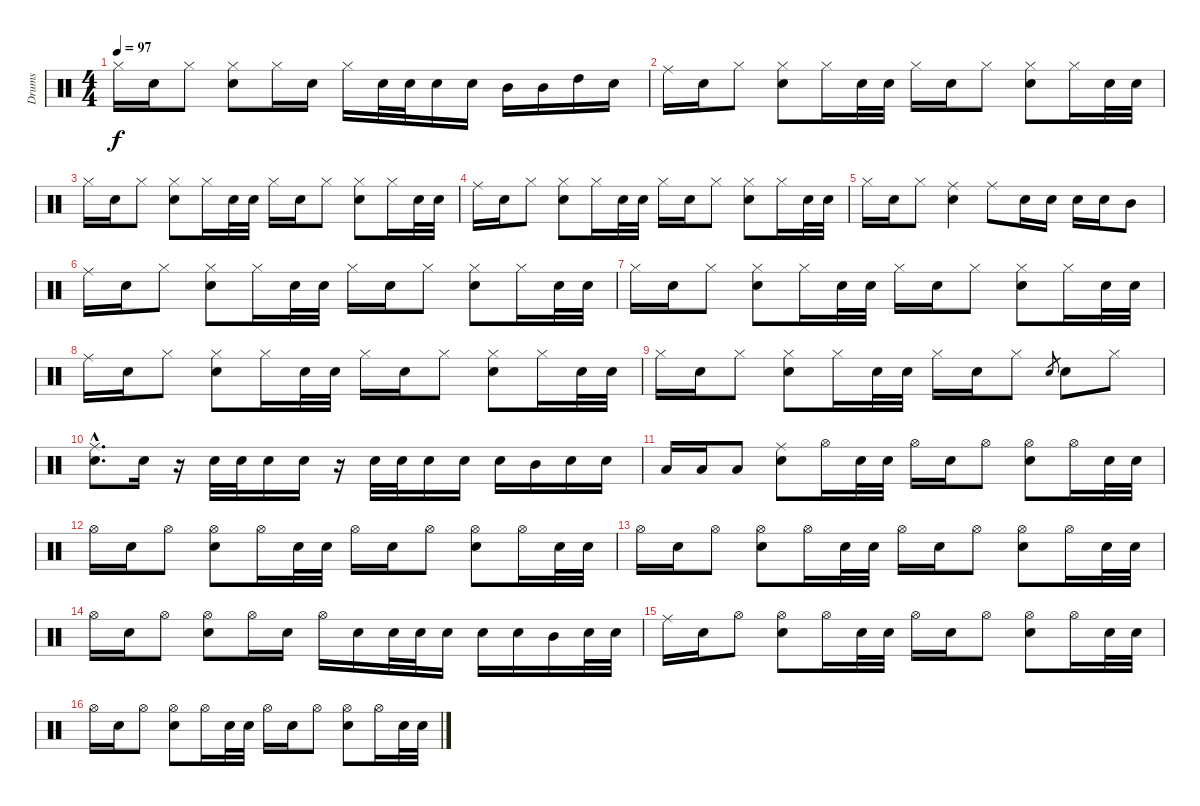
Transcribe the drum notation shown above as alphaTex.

\track ("Drums" "Drums") {instrument percussion}
\staff {score}
\articulation defaults
\ts (4 4)
\tempo 97
\clef neutral
\ks c "Hi-Hat (closed)".16{dy f} "Snare (hit) 2".16 "Hi-Hat (closed)".8
("Hi-Hat (closed)" "Snare (hit) 2").8 "Hi-Hat (closed)".16 "Snare (hit) 2".16 "Hi-Hat (closed)".16 "Snare (hit) 2".32 "Snare (hit) 2".32 "Snare (hit) 2".16 "Snare (hit) 2".16 "Mid Tom (hit)".16 "Mid Tom (hit)".16 "High Tom (hit)".16 "Snare (hit) 2".16 |
"Ride (middle)".16 "Snare (hit) 2".16 "Hi-Hat (closed)".8 ("Hi-Hat (closed)" "Snare (hit) 2").8 "Hi-Hat (closed)".16 "Snare (hit) 2".32 "Snare (hit) 2".32 "Hi-Hat (closed)".16 "Snare (hit) 2".16 "Hi-Hat (closed)".8 ("Hi-Hat (closed)" "Snare (hit) 2").8 "Hi-Hat (closed)".16 "Snare (hit) 2".32 "Snare (hit) 2".32 |
"Hi-Hat (closed)".16 "Snare (hit) 2".16 "Hi-Hat (closed)".8 ("Hi-Hat (closed)" "Snare (hit) 2").8 "Hi-Hat (closed)".16 "Snare (hit) 2".32 "Snare (hit) 2".32 "Hi-Hat (closed)".16 "Snare (hit) 2".16 "Hi-Hat (closed)".8 ("Hi-Hat (closed)" "Snare (hit) 2").8 "Hi-Hat (closed)".16 "Snare (hit) 2".32 "Snare (hit) 2".32 |
"Ride (middle)".16 "Snare (hit) 2".16 "Hi-Hat (closed)".8 ("Hi-Hat (closed)" "Snare (hit) 2").8 "Hi-Hat (closed)".16 "Snare (hit) 2".32 "Snare (hit) 2".32 "Hi-Hat (closed)".16 "Snare (hit) 2".16 "Hi-Hat (closed)".8 ("Hi-Hat (closed)" "Snare (hit) 2").8 "Hi-Hat (closed)".16 "Snare (hit) 2".32 "Snare (hit) 2".32 |
"Hi-Hat (closed)".16 "Snare (hit) 2".16 "Hi-Hat (closed)".8 ("Ride (middle)" "Snare (hit) 2").4 "Ride (middle)".8 "Snare (hit) 2".16 "Snare (hit) 2".16 "Snare (hit) 2".16 "Snare (hit) 2".16 "Mid Tom (hit)".8 |
"Ride (middle)".16 "Snare (hit) 2".16 "Hi-Hat (closed)".8 ("Hi-Hat (closed)" "Snare (hit) 2").8 "Hi-Hat (closed)".16 "Snare (hit) 2".32 "Snare (hit) 2".32 "Hi-Hat (closed)".16 "Snare (hit) 2".16 "Hi-Hat (closed)".8 ("Hi-Hat (closed)" "Snare (hit) 2").8 "Hi-Hat (closed)".16 "Snare (hit) 2".32 "Snare (hit) 2".32 |
"Hi-Hat (closed)".16 "Snare (hit) 2".16 "Hi-Hat (closed)".8 ("Hi-Hat (closed)" "Snare (hit) 2").8 "Hi-Hat (closed)".16 "Snare (hit) 2".32 "Snare (hit) 2".32 "Hi-Hat (closed)".16 "Snare (hit) 2".16 "Hi-Hat (closed)".8 ("Hi-Hat (closed)" "Snare (hit) 2").8 "Hi-Hat (closed)".16 "Snare (hit) 2".32 "Snare (hit) 2".32 |
"Ride (middle)".16 "Snare (hit) 2".16 "Hi-Hat (closed)".8 ("Hi-Hat (closed)" "Snare (hit) 2").8 "Hi-Hat (closed)".16 "Snare (hit) 2".32 "Snare (hit) 2".32 "Hi-Hat (closed)".16 "Snare (hit) 2".16 "Hi-Hat (closed)".8 ("Hi-Hat (closed)" "Snare (hit) 2").8 "Hi-Hat (closed)".16 "Snare (hit) 2".32 "Snare (hit) 2".32 |
"Hi-Hat (closed)".16 "Snare (hit) 2".16 "Hi-Hat (closed)".8 ("Hi-Hat (closed)" "Snare (hit) 2").8 "Hi-Hat (closed)".16 "Snare (hit) 2".32 "Snare (hit) 2".32 "Hi-Hat (closed)".16 "Snare (hit) 2".16 "Hi-Hat (closed)".8 "Snare (hit) 2".8{gr} "Snare (hit) 2".8 "Hi-Hat (closed)".8 |
("Ride (middle)"{hac} "Snare (hit) 2"{hac}).8{d} "Snare (hit) 2".16 r.16 "Snare (hit) 2".32 "Snare (hit) 2".32 "Snare (hit) 2".16 "Snare (hit) 2".16 r.16 "Snare (hit) 2".32 "Snare (hit) 2".32 "Snare (hit) 2".16 "Snare (hit) 2".16 "Snare (hit) 2".16 "Mid Tom (hit)".16 "Snare (hit) 2".16 "Snare (hit) 2".16 |
"Low Tom (hit)".16 "Low Tom (hit)".16 "Low Tom (hit)".8 ("Ride (middle)" "Snare (hit) 2").8 "Hi-Hat (open)".16 "Snare (hit) 2".32 "Snare (hit) 2".32 "Hi-Hat (open)".16 "Snare (hit) 2".16 "Hi-Hat (open)".8 ("Hi-Hat (open)" "Snare (hit) 2").8 "Hi-Hat (open)".16 "Snare (hit) 2".32 "Snare (hit) 2".32 |
"Hi-Hat (open)".16 "Snare (hit) 2".16 "Hi-Hat (open)".8 ("Hi-Hat (open)" "Snare (hit) 2").8 "Hi-Hat (open)".16 "Snare (hit) 2".32 "Snare (hit) 2".32 "Hi-Hat (open)".16 "Snare (hit) 2".16 "Hi-Hat (open)".8 ("Hi-Hat (open)" "Snare (hit) 2").8 "Hi-Hat (open)".16 "Snare (hit) 2".32 "Snare (hit) 2".32 |
"Hi-Hat (open)".16 "Snare (hit) 2".16 "Hi-Hat (open)".8 ("Hi-Hat (open)" "Snare (hit) 2").8 "Hi-Hat (open)".16 "Snare (hit) 2".32 "Snare (hit) 2".32 "Hi-Hat (open)".16 "Snare (hit) 2".16 "Hi-Hat (open)".8 ("Hi-Hat (open)" "Snare (hit) 2").8 "Hi-Hat (open)".16 "Snare (hit) 2".32 "Snare (hit) 2".32 |
"Hi-Hat (open)".16 "Snare (hit) 2".16 "Hi-Hat (open)".8 ("Hi-Hat (open)" "Snare (hit) 2").8 "Hi-Hat (open)".16 "Snare (hit) 2".16 "Hi-Hat (open)".16 "Snare (hit) 2".16 "Snare (hit) 2".32 "Snare (hit) 2".32 "Snare (hit) 2".16 "Snare (hit) 2".16 "Snare (hit) 2".16 "Mid Tom (hit)".16 "Snare (hit) 2".32 "Snare (hit) 2".32 |
"Ride (middle)".16 "Snare (hit) 2".16 "Hi-Hat (open)".8 ("Hi-Hat (open)" "Snare (hit) 2").8 "Hi-Hat (open)".16 "Snare (hit) 2".32 "Snare (hit) 2".32 "Hi-Hat (open)".16 "Snare (hit) 2".16 "Hi-Hat (open)".8 ("Hi-Hat (open)" "Snare (hit) 2").8 "Hi-Hat (open)".16 "Snare (hit) 2".32 "Snare (hit) 2".32 |
"Hi-Hat (open)".16 "Snare (hit) 2".16 "Hi-Hat (open)".8 ("Hi-Hat (open)" "Snare (hit) 2").8 "Hi-Hat (open)".16 "Snare (hit) 2".32 "Snare (hit) 2".32 "Hi-Hat (open)".16 "Snare (hit) 2".16 "Hi-Hat (open)".8 ("Hi-Hat (open)" "Snare (hit) 2").8 "Hi-Hat (open)".16 "Snare (hit) 2".32 "Snare (hit) 2".32
